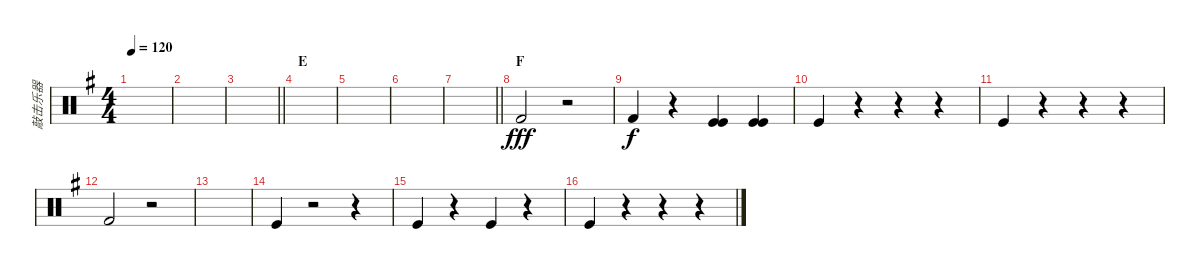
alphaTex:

\track ("敲击乐器" "敲击乐器") {instrument percussion}
\staff {score}
\articulation defaults
\ts (4 4)
\tempo 120
\clef neutral
\ks g
|
|
\barLineRight lightlight
|
\section ("" "E")
|
|
|
\barLineRight lightlight
|
\section ("" "F")
"Kick (hit) 2".2{dy fff} r.2 |
"Kick (hit) 2".4{dy f} r.4 ("Kick (hit)" "Kick (hit)").4 ("Kick (hit)" "Kick (hit)").4 |
"Kick (hit)".4 r.4 r.4 r.4 |
"Kick (hit)".4 r.4 r.4 r.4 |
"Kick (hit) 2".2 r.2 |
|
"Kick (hit)".4 r.2 r.4 |
"Kick (hit)".4 r.4 "Kick (hit)".4 r.4 |
"Kick (hit)".4 r.4 r.4 r.4
